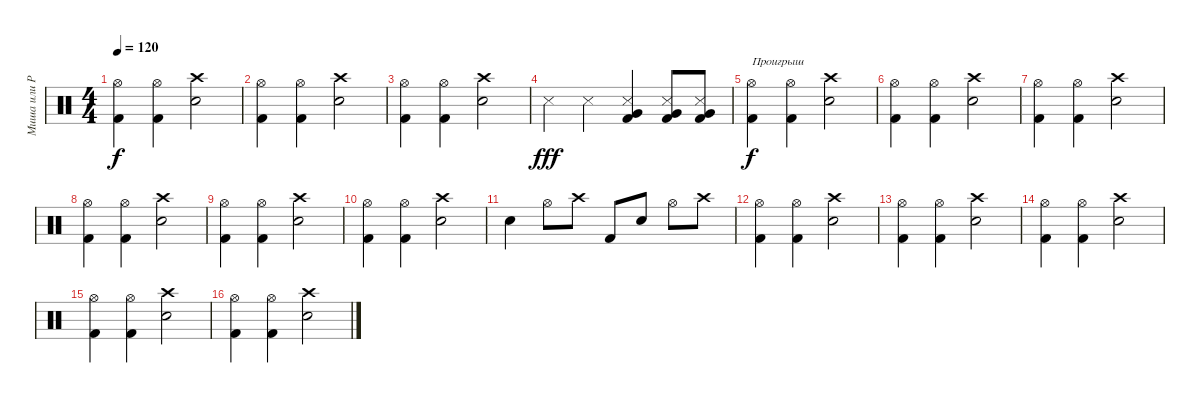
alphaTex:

\track ("Миша или Рома" "Миша или Р") {instrument percussion}
\staff {score}
\articulation defaults
\ts (4 4)
\tempo 120
\clef neutral
\ks c
("Hi-Hat (open)" "Kick (hit) 2").4{dy f} ("Hi-Hat (open)" "Kick (hit) 2").4 ("Crash high (hit)" "Snare (hit) 2").2 |
("Hi-Hat (open)" "Kick (hit) 2").4 ("Hi-Hat (open)" "Kick (hit) 2").4 ("Crash high (hit)" "Snare (hit) 2").2 |
("Hi-Hat (open)" "Kick (hit) 2").4 ("Hi-Hat (open)" "Kick (hit) 2").4 ("Crash high (hit)" "Snare (hit) 2").2 |
"Metronome (hit)".4{dy fff} "Metronome (hit)".4 ("Metronome (hit)" "Very Low Tom (hit)" "Kick (hit) 2").4 ("Metronome (hit)" "Very Low Tom (hit)" "Kick (hit) 2").8 ("Metronome (hit)" "Very Low Tom (hit)" "Kick (hit) 2").8 |
("Hi-Hat (open)" "Kick (hit) 2").4{txt "Проигрыш" dy f} ("Hi-Hat (open)" "Kick (hit) 2").4 ("Crash high (hit)" "Snare (hit) 2").2 |
("Hi-Hat (open)" "Kick (hit) 2").4 ("Hi-Hat (open)" "Kick (hit) 2").4 ("Crash high (hit)" "Snare (hit) 2").2 |
("Hi-Hat (open)" "Kick (hit) 2").4 ("Hi-Hat (open)" "Kick (hit) 2").4 ("Crash high (hit)" "Snare (hit) 2").2 |
("Hi-Hat (open)" "Kick (hit) 2").4 ("Hi-Hat (open)" "Kick (hit) 2").4 ("Crash high (hit)" "Snare (hit) 2").2 |
("Hi-Hat (open)" "Kick (hit) 2").4 ("Hi-Hat (open)" "Kick (hit) 2").4 ("Crash high (hit)" "Snare (hit) 2").2 |
("Hi-Hat (open)" "Kick (hit) 2").4 ("Hi-Hat (open)" "Kick (hit) 2").4 ("Crash high (hit)" "Snare (hit) 2").2 |
"Snare (hit) 2".4 "Hi-Hat (open)".8 "Crash high (hit)".8 "Kick (hit) 2".8 "Snare (hit) 2".8 "Hi-Hat (open)".8 "Crash high (hit)".8 |
("Hi-Hat (open)" "Kick (hit) 2").4 ("Hi-Hat (open)" "Kick (hit) 2").4 ("Crash high (hit)" "Snare (hit) 2").2 |
("Hi-Hat (open)" "Kick (hit) 2").4 ("Hi-Hat (open)" "Kick (hit) 2").4 ("Crash high (hit)" "Snare (hit) 2").2 |
("Hi-Hat (open)" "Kick (hit) 2").4 ("Hi-Hat (open)" "Kick (hit) 2").4 ("Crash high (hit)" "Snare (hit) 2").2 |
("Hi-Hat (open)" "Kick (hit) 2").4 ("Hi-Hat (open)" "Kick (hit) 2").4 ("Crash high (hit)" "Snare (hit) 2").2 |
("Hi-Hat (open)" "Kick (hit) 2").4 ("Hi-Hat (open)" "Kick (hit) 2").4 ("Crash high (hit)" "Snare (hit) 2").2
